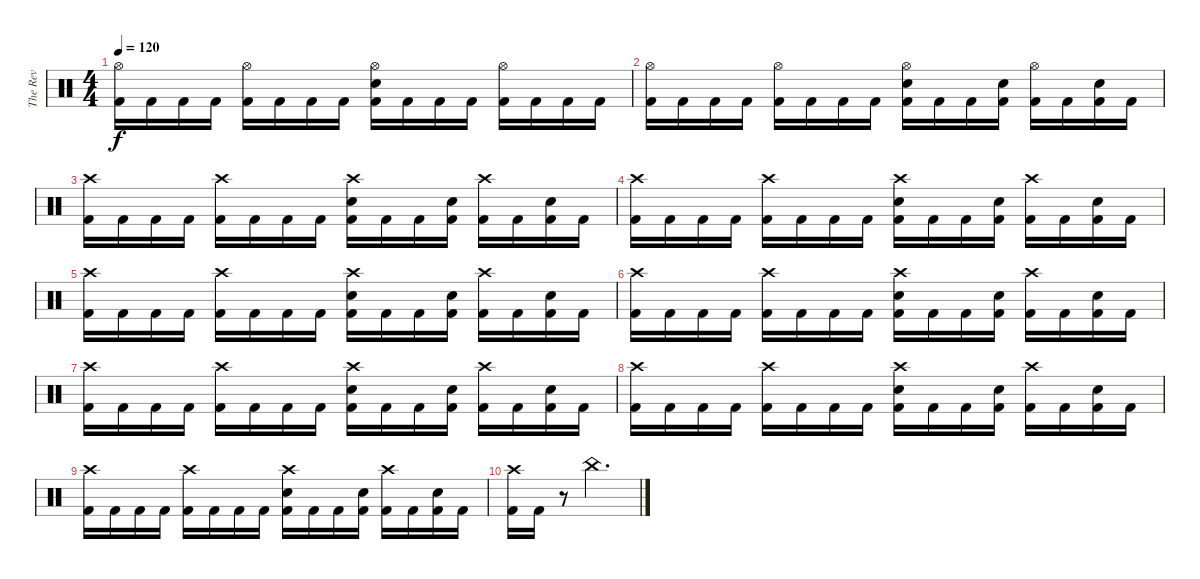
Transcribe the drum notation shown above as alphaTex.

\track ("The Rev" "The Rev") {instrument percussion}
\staff {score}
\articulation defaults
\ts (4 4)
\tempo 120
\clef neutral
\ks c
("Hi-Hat (open)" "Kick (hit) 2").16{dy f} "Kick (hit) 2".16 "Kick (hit) 2".16 "Kick (hit) 2".16 ("Hi-Hat (open)" "Kick (hit) 2").16 "Kick (hit) 2".16 "Kick (hit) 2".16 "Kick (hit) 2".16 ("Hi-Hat (open)" "Snare (hit) 2" "Kick (hit) 2").16 "Kick (hit) 2".16 "Kick (hit) 2".16 "Kick (hit) 2".16 ("Hi-Hat (open)" "Kick (hit) 2").16 "Kick (hit) 2".16 "Kick (hit) 2".16 "Kick (hit) 2".16 |
("Hi-Hat (open)" "Kick (hit) 2").16 "Kick (hit) 2".16 "Kick (hit) 2".16 "Kick (hit) 2".16 ("Hi-Hat (open)" "Kick (hit) 2").16 "Kick (hit) 2".16 "Kick (hit) 2".16 "Kick (hit) 2".16 ("Hi-Hat (open)" "Snare (hit) 2" "Kick (hit) 2").16 "Kick (hit) 2".16 "Kick (hit) 2".16 ("Snare (hit) 2" "Kick (hit) 2").16 ("Hi-Hat (open)" "Kick (hit) 2").16 "Kick (hit) 2".16 ("Snare (hit) 2" "Kick (hit) 2").16 "Kick (hit) 2".16 |
("Crash high (hit)" "Kick (hit) 2").16 "Kick (hit) 2".16 "Kick (hit) 2".16 "Kick (hit) 2".16 ("Crash high (hit)" "Kick (hit) 2").16 "Kick (hit) 2".16 "Kick (hit) 2".16 "Kick (hit) 2".16 ("Crash high (hit)" "Snare (hit) 2" "Kick (hit) 2").16 "Kick (hit) 2".16 "Kick (hit) 2".16 ("Snare (hit) 2" "Kick (hit) 2").16 ("Crash high (hit)" "Kick (hit) 2").16 "Kick (hit) 2".16 ("Snare (hit) 2" "Kick (hit) 2").16 "Kick (hit) 2".16 |
("Crash high (hit)" "Kick (hit) 2").16 "Kick (hit) 2".16 "Kick (hit) 2".16 "Kick (hit) 2".16 ("Crash high (hit)" "Kick (hit) 2").16 "Kick (hit) 2".16 "Kick (hit) 2".16 "Kick (hit) 2".16 ("Crash high (hit)" "Snare (hit) 2" "Kick (hit) 2").16 "Kick (hit) 2".16 "Kick (hit) 2".16 ("Snare (hit) 2" "Kick (hit) 2").16 ("Crash high (hit)" "Kick (hit) 2").16 "Kick (hit) 2".16 ("Snare (hit) 2" "Kick (hit) 2").16 "Kick (hit) 2".16 |
("Crash high (hit)" "Kick (hit) 2").16 "Kick (hit) 2".16 "Kick (hit) 2".16 "Kick (hit) 2".16 ("Crash high (hit)" "Kick (hit) 2").16 "Kick (hit) 2".16 "Kick (hit) 2".16 "Kick (hit) 2".16 ("Crash high (hit)" "Snare (hit) 2" "Kick (hit) 2").16 "Kick (hit) 2".16 "Kick (hit) 2".16 ("Snare (hit) 2" "Kick (hit) 2").16 ("Crash high (hit)" "Kick (hit) 2").16 "Kick (hit) 2".16 ("Snare (hit) 2" "Kick (hit) 2").16 "Kick (hit) 2".16 |
("Crash high (hit)" "Kick (hit) 2").16 "Kick (hit) 2".16 "Kick (hit) 2".16 "Kick (hit) 2".16 ("Crash high (hit)" "Kick (hit) 2").16 "Kick (hit) 2".16 "Kick (hit) 2".16 "Kick (hit) 2".16 ("Crash high (hit)" "Snare (hit) 2" "Kick (hit) 2").16 "Kick (hit) 2".16 "Kick (hit) 2".16 ("Snare (hit) 2" "Kick (hit) 2").16 ("Crash high (hit)" "Kick (hit) 2").16 "Kick (hit) 2".16 ("Snare (hit) 2" "Kick (hit) 2").16 "Kick (hit) 2".16 |
("Crash high (hit)" "Kick (hit) 2").16 "Kick (hit) 2".16 "Kick (hit) 2".16 "Kick (hit) 2".16 ("Crash high (hit)" "Kick (hit) 2").16 "Kick (hit) 2".16 "Kick (hit) 2".16 "Kick (hit) 2".16 ("Crash high (hit)" "Snare (hit) 2" "Kick (hit) 2").16 "Kick (hit) 2".16 "Kick (hit) 2".16 ("Snare (hit) 2" "Kick (hit) 2").16 ("Crash high (hit)" "Kick (hit) 2").16 "Kick (hit) 2".16 ("Snare (hit) 2" "Kick (hit) 2").16 "Kick (hit) 2".16 |
("Crash high (hit)" "Kick (hit) 2").16 "Kick (hit) 2".16 "Kick (hit) 2".16 "Kick (hit) 2".16 ("Crash high (hit)" "Kick (hit) 2").16 "Kick (hit) 2".16 "Kick (hit) 2".16 "Kick (hit) 2".16 ("Crash high (hit)" "Snare (hit) 2" "Kick (hit) 2").16 "Kick (hit) 2".16 "Kick (hit) 2".16 ("Snare (hit) 2" "Kick (hit) 2").16 ("Crash high (hit)" "Kick (hit) 2").16 "Kick (hit) 2".16 ("Snare (hit) 2" "Kick (hit) 2").16 "Kick (hit) 2".16 |
("Crash high (hit)" "Kick (hit) 2").16 "Kick (hit) 2".16 "Kick (hit) 2".16 "Kick (hit) 2".16 ("Crash high (hit)" "Kick (hit) 2").16 "Kick (hit) 2".16 "Kick (hit) 2".16 "Kick (hit) 2".16 ("Crash high (hit)" "Snare (hit) 2" "Kick (hit) 2").16 "Kick (hit) 2".16 "Kick (hit) 2".16 ("Snare (hit) 2" "Kick (hit) 2").16 ("Crash high (hit)" "Kick (hit) 2").16 "Kick (hit) 2".16 ("Snare (hit) 2" "Kick (hit) 2").16 "Kick (hit) 2".16 |
("Crash high (hit)" "Kick (hit) 2").16 "Kick (hit) 2".16 r.8 "China (hit)".2{d}
